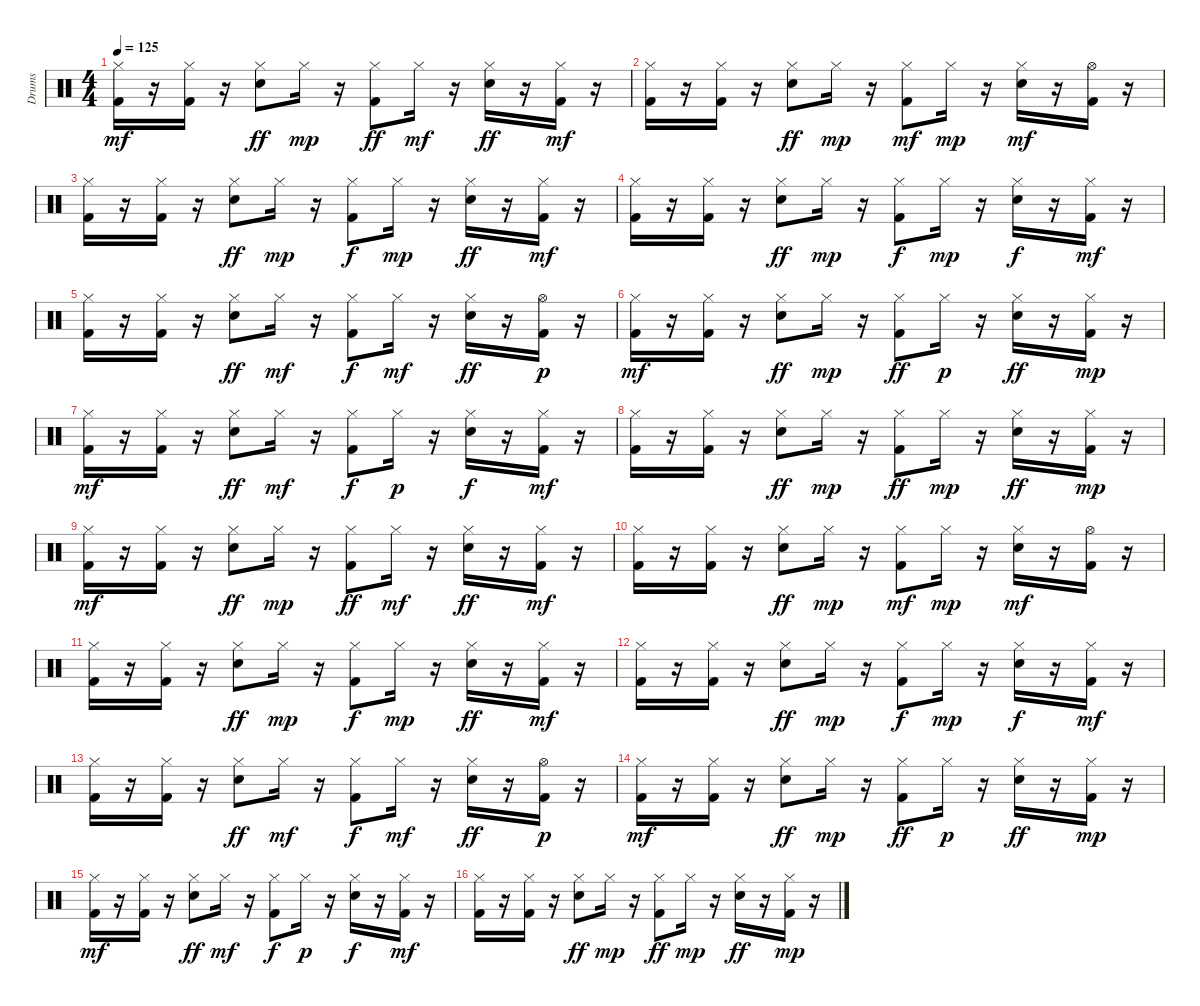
\track ("Drums" "Drums") {instrument percussion}
\staff {score}
\articulation defaults
\ts (4 4)
\tempo 125
\clef neutral
\ks c
("Hi-Hat (closed)" "Kick (hit) 2").16{dy mf} r.16 ("Hi-Hat (closed)" "Kick (hit) 2").16 r.16 ("Hi-Hat (closed)" "Snare (hit) 2").8{dy ff} "Hi-Hat (closed)".16{dy mp} r.16 ("Hi-Hat (closed)" "Kick (hit) 2").8{dy ff} "Hi-Hat (closed)".16{dy mf} r.16 ("Snare (hit) 2" "Hi-Hat (closed)").16{dy ff} r.16 ("Kick (hit) 2" "Hi-Hat (closed)").16{dy mf} r.16 |
("Hi-Hat (closed)" "Kick (hit) 2").16 r.16 ("Kick (hit) 2" "Hi-Hat (closed)").16 r.16 ("Hi-Hat (closed)" "Snare (hit) 2").8{dy ff} "Hi-Hat (closed)".16{dy mp} r.16 ("Kick (hit) 2" "Hi-Hat (closed)").8{dy mf} "Hi-Hat (closed)".16{dy mp} r.16 ("Snare (hit) 2" "Hi-Hat (closed)").16{dy mf} r.16 ("Hi-Hat (open)" "Kick (hit) 2").16 r.16 |
("Hi-Hat (closed)" "Kick (hit) 2").16 r.16 ("Hi-Hat (closed)" "Kick (hit) 2").16 r.16 ("Snare (hit) 2" "Hi-Hat (closed)").8{dy ff} "Hi-Hat (closed)".16{dy mp} r.16 ("Hi-Hat (closed)" "Kick (hit) 2").8{dy f} "Hi-Hat (closed)".16{dy mp} r.16 ("Hi-Hat (closed)" "Snare (hit) 2").16{dy ff} r.16 ("Hi-Hat (closed)" "Kick (hit) 2").16{dy mf} r.16 |
("Hi-Hat (closed)" "Kick (hit) 2").16 r.16 ("Hi-Hat (closed)" "Kick (hit) 2").16 r.16 ("Hi-Hat (closed)" "Snare (hit) 2").8{dy ff} "Hi-Hat (closed)".16{dy mp} r.16 ("Hi-Hat (closed)" "Kick (hit) 2").8{dy f} "Hi-Hat (closed)".16{dy mp} r.16 ("Snare (hit) 2" "Hi-Hat (closed)").16{dy f} r.16 ("Kick (hit) 2" "Hi-Hat (closed)").16{dy mf} r.16 |
("Hi-Hat (closed)" "Kick (hit) 2").16 r.16 ("Kick (hit) 2" "Hi-Hat (closed)").16 r.16 ("Snare (hit) 2" "Hi-Hat (closed)").8{dy ff} "Hi-Hat (closed)".16{dy mf} r.16 ("Kick (hit) 2" "Hi-Hat (closed)").8{dy f} "Hi-Hat (closed)".16{dy mf} r.16 ("Hi-Hat (closed)" "Snare (hit) 2").16{dy ff} r.16 ("Kick (hit) 2" "Hi-Hat (open)").16{dy p} r.16 |
("Hi-Hat (closed)" "Kick (hit) 2").16{dy mf} r.16 ("Kick (hit) 2" "Hi-Hat (closed)").16 r.16 ("Hi-Hat (closed)" "Snare (hit) 2").8{dy ff} "Hi-Hat (closed)".16{dy mp} r.16 ("Kick (hit) 2" "Hi-Hat (closed)").8{dy ff} "Hi-Hat (closed)".16{dy p} r.16 ("Hi-Hat (closed)" "Snare (hit) 2").16{dy ff} r.16 ("Hi-Hat (closed)" "Kick (hit) 2").16{dy mp} r.16 |
("Hi-Hat (closed)" "Kick (hit) 2").16{dy mf} r.16 ("Hi-Hat (closed)" "Kick (hit) 2").16 r.16 ("Snare (hit) 2" "Hi-Hat (closed)").8{dy ff} "Hi-Hat (closed)".16{dy mf} r.16 ("Kick (hit) 2" "Hi-Hat (closed)").8{dy f} "Hi-Hat (closed)".16{dy p} r.16 ("Snare (hit) 2" "Hi-Hat (closed)").16{dy f} r.16 ("Hi-Hat (closed)" "Kick (hit) 2").16{dy mf} r.16 |
("Hi-Hat (closed)" "Kick (hit) 2").16 r.16 ("Hi-Hat (closed)" "Kick (hit) 2").16 r.16 ("Snare (hit) 2" "Hi-Hat (closed)").8{dy ff} "Hi-Hat (closed)".16{dy mp} r.16 ("Kick (hit) 2" "Hi-Hat (closed)").8{dy ff} "Hi-Hat (closed)".16{dy mp} r.16 ("Snare (hit) 2" "Hi-Hat (closed)").16{dy ff} r.16 ("Hi-Hat (closed)" "Kick (hit) 2").16{dy mp} r.16 |
("Hi-Hat (closed)" "Kick (hit) 2").16{dy mf} r.16 ("Hi-Hat (closed)" "Kick (hit) 2").16 r.16 ("Hi-Hat (closed)" "Snare (hit) 2").8{dy ff} "Hi-Hat (closed)".16{dy mp} r.16 ("Hi-Hat (closed)" "Kick (hit) 2").8{dy ff} "Hi-Hat (closed)".16{dy mf} r.16 ("Snare (hit) 2" "Hi-Hat (closed)").16{dy ff} r.16 ("Kick (hit) 2" "Hi-Hat (closed)").16{dy mf} r.16 |
("Hi-Hat (closed)" "Kick (hit) 2").16 r.16 ("Kick (hit) 2" "Hi-Hat (closed)").16 r.16 ("Hi-Hat (closed)" "Snare (hit) 2").8{dy ff} "Hi-Hat (closed)".16{dy mp} r.16 ("Kick (hit) 2" "Hi-Hat (closed)").8{dy mf} "Hi-Hat (closed)".16{dy mp} r.16 ("Snare (hit) 2" "Hi-Hat (closed)").16{dy mf} r.16 ("Hi-Hat (open)" "Kick (hit) 2").16 r.16 |
("Hi-Hat (closed)" "Kick (hit) 2").16 r.16 ("Hi-Hat (closed)" "Kick (hit) 2").16 r.16 ("Snare (hit) 2" "Hi-Hat (closed)").8{dy ff} "Hi-Hat (closed)".16{dy mp} r.16 ("Hi-Hat (closed)" "Kick (hit) 2").8{dy f} "Hi-Hat (closed)".16{dy mp} r.16 ("Hi-Hat (closed)" "Snare (hit) 2").16{dy ff} r.16 ("Hi-Hat (closed)" "Kick (hit) 2").16{dy mf} r.16 |
("Hi-Hat (closed)" "Kick (hit) 2").16 r.16 ("Hi-Hat (closed)" "Kick (hit) 2").16 r.16 ("Hi-Hat (closed)" "Snare (hit) 2").8{dy ff} "Hi-Hat (closed)".16{dy mp} r.16 ("Hi-Hat (closed)" "Kick (hit) 2").8{dy f} "Hi-Hat (closed)".16{dy mp} r.16 ("Snare (hit) 2" "Hi-Hat (closed)").16{dy f} r.16 ("Kick (hit) 2" "Hi-Hat (closed)").16{dy mf} r.16 |
("Hi-Hat (closed)" "Kick (hit) 2").16 r.16 ("Kick (hit) 2" "Hi-Hat (closed)").16 r.16 ("Snare (hit) 2" "Hi-Hat (closed)").8{dy ff} "Hi-Hat (closed)".16{dy mf} r.16 ("Kick (hit) 2" "Hi-Hat (closed)").8{dy f} "Hi-Hat (closed)".16{dy mf} r.16 ("Hi-Hat (closed)" "Snare (hit) 2").16{dy ff} r.16 ("Kick (hit) 2" "Hi-Hat (open)").16{dy p} r.16 |
("Hi-Hat (closed)" "Kick (hit) 2").16{dy mf} r.16 ("Kick (hit) 2" "Hi-Hat (closed)").16 r.16 ("Hi-Hat (closed)" "Snare (hit) 2").8{dy ff} "Hi-Hat (closed)".16{dy mp} r.16 ("Kick (hit) 2" "Hi-Hat (closed)").8{dy ff} "Hi-Hat (closed)".16{dy p} r.16 ("Hi-Hat (closed)" "Snare (hit) 2").16{dy ff} r.16 ("Hi-Hat (closed)" "Kick (hit) 2").16{dy mp} r.16 |
("Hi-Hat (closed)" "Kick (hit) 2").16{dy mf} r.16 ("Hi-Hat (closed)" "Kick (hit) 2").16 r.16 ("Snare (hit) 2" "Hi-Hat (closed)").8{dy ff} "Hi-Hat (closed)".16{dy mf} r.16 ("Kick (hit) 2" "Hi-Hat (closed)").8{dy f} "Hi-Hat (closed)".16{dy p} r.16 ("Snare (hit) 2" "Hi-Hat (closed)").16{dy f} r.16 ("Hi-Hat (closed)" "Kick (hit) 2").16{dy mf} r.16 |
("Hi-Hat (closed)" "Kick (hit) 2").16 r.16 ("Hi-Hat (closed)" "Kick (hit) 2").16 r.16 ("Snare (hit) 2" "Hi-Hat (closed)").8{dy ff} "Hi-Hat (closed)".16{dy mp} r.16 ("Kick (hit) 2" "Hi-Hat (closed)").8{dy ff} "Hi-Hat (closed)".16{dy mp} r.16 ("Snare (hit) 2" "Hi-Hat (closed)").16{dy ff} r.16 ("Hi-Hat (closed)" "Kick (hit) 2").16{dy mp} r.16
